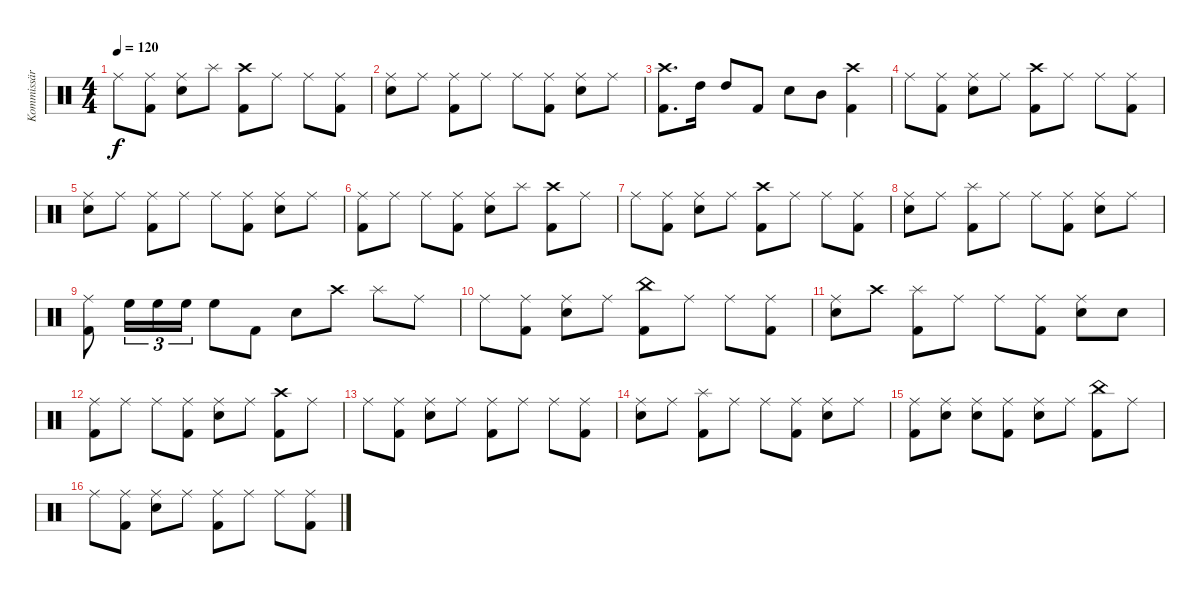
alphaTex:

\track ("Kommissär Ogrim" "Kommissär ") {instrument percussion}
\staff {score}
\articulation defaults
\ts (4 4)
\tempo 120
\clef neutral
\ks c "Ride (middle)".8{dy f}
("Ride (middle)" "Kick (hit) 2").8 ("Snare (hit) 2" "Ride (middle)").8 "Splash (hit)".8 ("Crash high (hit)" "Kick (hit) 2").8 "Ride (middle)".8 "Ride (middle)".8 ("Ride (middle)" "Kick (hit) 2").8 |
("Snare (hit) 2" "Ride (middle)").8 "Ride (middle)".8 ("Ride (middle)" "Kick (hit) 2").8 "Ride (middle)".8 "Ride (middle)".8 ("Ride (middle)" "Kick (hit) 2").8 ("Snare (hit) 2" "Ride (middle)").8 "Ride (middle)".8 |
("Crash high (hit)" "Kick (hit) 2").8{d} "High Tom (hit)".16 "High Tom (hit)".8 "Kick (hit) 2".8 "Snare (hit) 2".8 "Mid Tom (hit)".8 ("Crash high (hit)" "Kick (hit) 2").4 |
"Ride (middle)".8 ("Ride (middle)" "Kick (hit) 2").8 ("Snare (hit) 2" "Ride (middle)").8 "Ride (middle)".8 ("Crash high (hit)" "Kick (hit) 2").8 "Ride (middle)".8 "Ride (middle)".8 ("Ride (middle)" "Kick (hit) 2").8 |
("Snare (hit) 2" "Ride (middle)").8 "Ride (middle)".8 ("Ride (middle)" "Kick (hit) 2").8 "Ride (middle)".8 "Ride (middle)".8 ("Ride (middle)" "Kick (hit) 2").8 ("Snare (hit) 2" "Ride (middle)").8 "Ride (middle)".8 |
("Ride (middle)" "Kick (hit) 2").8 "Ride (middle)".8 "Ride (middle)".8 ("Ride (middle)" "Kick (hit) 2").8 ("Snare (hit) 2" "Ride (middle)").8 "Splash (hit)".8 ("Crash high (hit)" "Kick (hit) 2").8 "Ride (middle)".8 |
"Ride (middle)".8 ("Ride (middle)" "Kick (hit) 2").8 ("Snare (hit) 2" "Ride (middle)").8 "Ride (middle)".8 ("Crash high (hit)" "Kick (hit) 2").8 "Ride (middle)".8 "Ride (middle)".8 ("Ride (middle)" "Kick (hit) 2").8 |
("Snare (hit) 2" "Ride (middle)").8 "Ride (middle)".8 ("Splash (hit)" "Kick (hit) 2").8 "Ride (middle)".8 "Ride (middle)".8 ("Ride (middle)" "Kick (hit) 2").8 ("Snare (hit) 2" "Ride (middle)").8 "Ride (middle)".8 |
("Ride (middle)" "Kick (hit) 2").8 "High Floor Tom (hit)".16{tu (3 2)} "High Floor Tom (hit)".16{tu (3 2)} "High Floor Tom (hit)".16{tu (3 2)} "High Floor Tom (hit)".8 "Kick (hit) 2".8 "Snare (hit) 2".8 "Crash high (hit)".8 "Splash (hit)".8 "Ride (middle)".8 |
"Ride (middle)".8 ("Ride (middle)" "Kick (hit) 2").8 ("Snare (hit) 2" "Ride (middle)").8 "Ride (middle)".8 ("China (hit)" "Kick (hit) 2").8 "Ride (middle)".8 "Ride (middle)".8 ("Ride (middle)" "Kick (hit) 2").8 |
("Snare (hit) 2" "Ride (middle)").8 "Crash high (hit)".8 ("Splash (hit)" "Kick (hit) 2").8 "Ride (middle)".8 "Ride (middle)".8 ("Ride (middle)" "Kick (hit) 2").8 ("Snare (hit) 2" "Ride (middle)").8 "Snare (hit)".8 |
("Ride (middle)" "Kick (hit) 2").8 "Ride (middle)".8 "Ride (middle)".8 ("Ride (middle)" "Kick (hit) 2").8 ("Snare (hit) 2" "Ride (middle)").8 "Ride (middle)".8 ("Crash high (hit)" "Kick (hit) 2").8 "Ride (middle)".8 |
"Ride (middle)".8 ("Ride (middle)" "Kick (hit) 2").8 ("Snare (hit) 2" "Ride (middle)").8 "Ride (middle)".8 ("Ride (middle)" "Kick (hit) 2").8 "Ride (middle)".8 "Ride (middle)".8 ("Ride (middle)" "Kick (hit) 2").8 |
("Snare (hit) 2" "Ride (middle)").8 "Ride (middle)".8 ("Splash (hit)" "Kick (hit) 2").8 "Ride (middle)".8 "Ride (middle)".8 ("Ride (middle)" "Kick (hit) 2").8 ("Snare (hit) 2" "Ride (middle)").8 "Ride (middle)".8 |
("Ride (middle)" "Kick (hit) 2").8 ("Snare (hit) 2" "Ride (middle)").8 ("Snare (hit) 2" "Ride (middle)").8 ("Ride (middle)" "Kick (hit) 2").8 ("Snare (hit) 2" "Ride (middle)").8 "Ride (middle)".8 ("China (hit)" "Kick (hit) 2").8 "Ride (middle)".8 |
"Ride (middle)".8 ("Ride (middle)" "Kick (hit) 2").8 ("Snare (hit) 2" "Ride (middle)").8 "Ride (middle)".8 ("Ride (middle)" "Kick (hit) 2").8 "Ride (middle)".8 "Ride (middle)".8 ("Ride (middle)" "Kick (hit) 2").8
